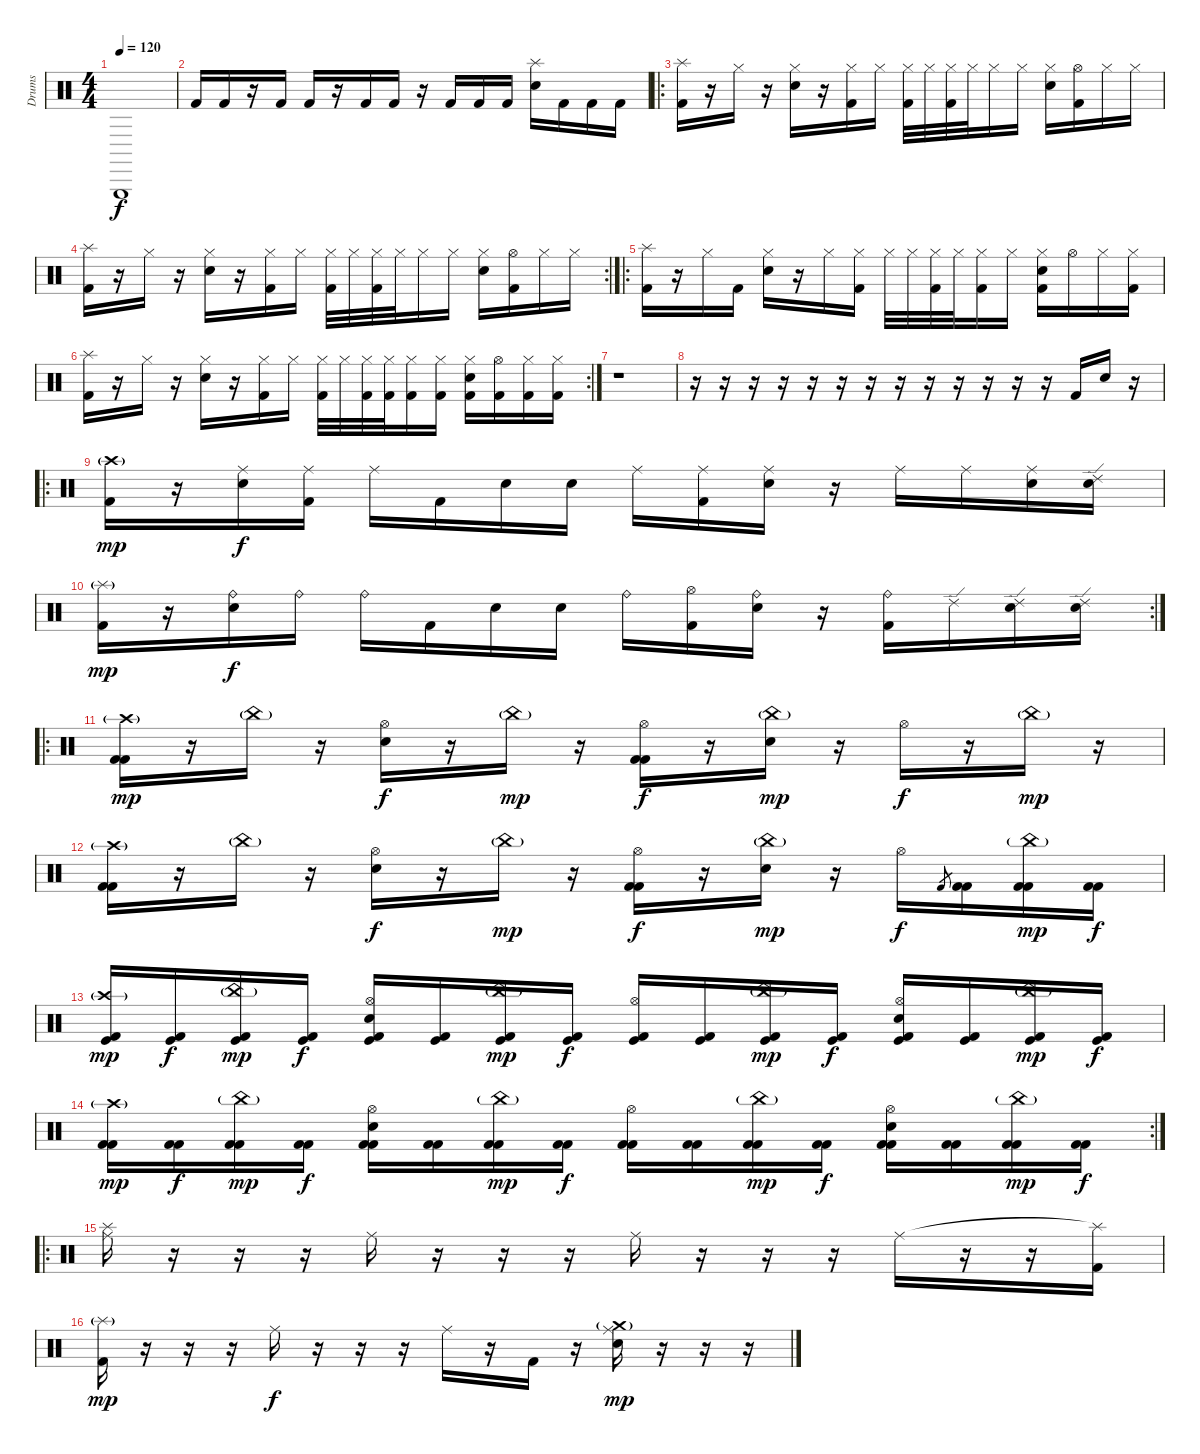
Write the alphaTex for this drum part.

\track ("Drums" "Drums") {instrument percussion}
\staff {score}
\articulation defaults
\ts (4 4)
\tempo 120
\clef neutral
\ks c "Triangle (hit)".1{dy f}
|
"Kick (hit) 2".16 "Kick (hit) 2".16 r.16 "Kick (hit) 2".16 "Kick (hit) 2".16 r.16 "Kick (hit) 2".16 "Kick (hit) 2".16 r.16 "Kick (hit) 2".16 "Kick (hit) 2".16 "Kick (hit) 2".16 ("Splash (hit)" "Snare (hit) 2").16 "Kick (hit) 2".16 "Kick (hit) 2".16 "Kick (hit) 2".16 |
\ro
("Splash (hit)" "Kick (hit) 2").16 r.16 "Hi-Hat (closed)".16 r.16 ("Hi-Hat (closed)" "Snare (hit) 2").16 r.16 ("Hi-Hat (closed)" "Kick (hit) 2").16 "Hi-Hat (closed)".16 ("Hi-Hat (closed)" "Kick (hit) 2").32 "Hi-Hat (closed)".32 ("Hi-Hat (closed)" "Kick (hit) 2").32 "Hi-Hat (closed)".32 "Hi-Hat (closed)".16 "Hi-Hat (closed)".16 ("Hi-Hat (closed)" "Snare (hit) 2").16 ("Hi-Hat (open)" "Kick (hit) 2").16 "Hi-Hat (closed)".16 "Hi-Hat (closed)".16 |
\rc 2
("Splash (hit)" "Kick (hit) 2").16 r.16 "Hi-Hat (closed)".16 r.16 ("Hi-Hat (closed)" "Snare (hit) 2").16 r.16 ("Hi-Hat (closed)" "Kick (hit) 2").16 "Hi-Hat (closed)".16 ("Hi-Hat (closed)" "Kick (hit) 2").32 "Hi-Hat (closed)".32 ("Hi-Hat (closed)" "Kick (hit) 2").32 "Hi-Hat (closed)".32 "Hi-Hat (closed)".16 "Hi-Hat (closed)".16 ("Hi-Hat (closed)" "Snare (hit) 2").16 ("Hi-Hat (open)" "Kick (hit) 2").16 "Hi-Hat (closed)".16 "Hi-Hat (closed)".16 |
\ro
("Splash (hit)" "Kick (hit) 2").16 r.16 "Hi-Hat (closed)".16 "Kick (hit) 2".16 ("Hi-Hat (closed)" "Snare (hit) 2").16 r.16 "Hi-Hat (closed)".16 ("Hi-Hat (closed)" "Kick (hit) 2").16 "Hi-Hat (closed)".32 "Hi-Hat (closed)".32 ("Hi-Hat (closed)" "Kick (hit) 2").32 "Hi-Hat (closed)".32 ("Hi-Hat (closed)" "Kick (hit) 2").16 "Hi-Hat (closed)".16 ("Hi-Hat (closed)" "Snare (hit) 2" "Kick (hit) 2").16 "Hi-Hat (open)".16 "Hi-Hat (closed)".16 ("Hi-Hat (closed)" "Kick (hit) 2").16 |
\rc 2
("Splash (hit)" "Kick (hit) 2").16 r.16 "Hi-Hat (closed)".16 r.16 ("Hi-Hat (closed)" "Snare (hit) 2").16 r.16 ("Hi-Hat (closed)" "Kick (hit) 2").16 "Hi-Hat (closed)".16 ("Hi-Hat (closed)" "Kick (hit) 2").32 "Hi-Hat (closed)".32 ("Hi-Hat (closed)" "Kick (hit) 2").32 ("Hi-Hat (closed)" "Kick (hit) 2").32 ("Hi-Hat (closed)" "Kick (hit) 2").16 ("Hi-Hat (closed)" "Kick (hit) 2").16 ("Hi-Hat (closed)" "Snare (hit) 2" "Kick (hit) 2").16 ("Hi-Hat (open)" "Kick (hit) 2").16 ("Hi-Hat (closed)" "Kick (hit) 2").16 ("Hi-Hat (closed)" "Kick (hit) 2").16 |
r.1 |
r.16 r.16 r.16 r.16 r.16 r.16 r.16 r.16 r.16 r.16 r.16 r.16 r.16 "Kick (hit) 2".16 "Snare (hit) 2".16 r.16 |
\ro
("Crash high (hit)"{g} "Kick (hit) 2").16{dy mp} r.16 ("Ride (middle)" "Snare (hit) 2").16{dy f} ("Ride (middle)" "Kick (hit) 2").16 "Ride (middle)".16 "Kick (hit) 2".16 "Snare (hit) 2".16 "Snare (hit) 2".16 "Ride (middle)".16 ("Ride (middle)" "Kick (hit) 2").16 ("Ride (middle)" "Snare (hit) 2").16 r.16 "Ride (middle)".16 "Ride (middle)".16 ("Ride (middle)" "Snare (hit) 2").16 ("Ride (edge) 2" "Snare (hit) 2").16 |
\rc 2
("Splash (hit)"{g} "Kick (hit) 2").16{dy mp} r.16 ("Ride (bell)" "Snare (hit) 2").16{dy f} "Ride (bell)".16 "Ride (bell)".16 "Kick (hit) 2".16 "Snare (hit) 2".16 "Snare (hit) 2".16 "Ride (bell)".16 ("Hi-Hat (open)" "Kick (hit) 2").16 ("Ride (bell)" "Snare (hit) 2").16 r.16 ("Ride (bell)" "Kick (hit) 2").16 "Ride (edge) 2".16 ("Ride (edge) 2" "Snare (hit) 2").16 ("Ride (edge) 2" "Snare (hit) 2").16 |
\ro
("Crash high (hit)"{g} "Kick (hit) 2" "Kick (hit) 2").16{dy mp} r.16 "China (hit)"{g}.16 r.16 ("Hi-Hat (open)" "Electric Snare (hit)").16{dy f} r.16 "China (hit)"{g}.16{dy mp} r.16 ("Hi-Hat (open)" "Kick (hit) 2" "Kick (hit) 2").16{dy f} r.16 ("China (hit)"{g} "Electric Snare (hit)").16{dy mp} r.16 "Hi-Hat (open)".16{dy f} r.16 "China (hit)"{g}.16{dy mp} r.16 |
("Crash high (hit)"{g} "Kick (hit) 2" "Kick (hit) 2").16 r.16 "China (hit)"{g}.16 r.16 ("Hi-Hat (open)" "Electric Snare (hit)").16{dy f} r.16 "China (hit)"{g}.16{dy mp} r.16 ("Hi-Hat (open)" "Kick (hit) 2" "Kick (hit) 2").16{dy f} r.16 ("China (hit)"{g} "Electric Snare (hit)").16{dy mp} r.16 "Hi-Hat (open)".16{dy f} "Kick (hit) 2".8{gr} ("Kick (hit) 2" "Kick (hit) 2").16 ("China (hit)"{g} "Kick (hit) 2" "Kick (hit) 2").16{dy mp} ("Kick (hit) 2" "Kick (hit) 2").16{dy f} |
("Crash high (hit)"{g} "Kick (hit) 2" "Kick (hit)").16{dy mp} ("Kick (hit) 2" "Kick (hit)").16{dy f} ("China (hit)"{g} "Kick (hit) 2" "Kick (hit)").16{dy mp} ("Kick (hit) 2" "Kick (hit)").16{dy f} ("Hi-Hat (open)" "Electric Snare (hit)" "Kick (hit) 2" "Kick (hit)").16 ("Kick (hit) 2" "Kick (hit)").16 ("China (hit)"{g} "Kick (hit) 2" "Kick (hit)").16{dy mp} ("Kick (hit) 2" "Kick (hit)").16{dy f} ("Hi-Hat (open)" "Kick (hit) 2" "Kick (hit)").16 ("Kick (hit) 2" "Kick (hit)").16 ("China (hit)"{g} "Kick (hit) 2" "Kick (hit)").16{dy mp} ("Kick (hit) 2" "Kick (hit)").16{dy f} ("Hi-Hat (open)" "Electric Snare (hit)" "Kick (hit) 2" "Kick (hit)").16 ("Kick (hit) 2" "Kick (hit)").16 ("China (hit)"{g} "Kick (hit) 2" "Kick (hit)").16{dy mp} ("Kick (hit) 2" "Kick (hit)").16{dy f} |
\rc 2
("Crash high (hit)"{g} "Kick (hit) 2" "Kick (hit) 2").16{dy mp} ("Kick (hit) 2" "Kick (hit) 2").16{dy f} ("China (hit)"{g} "Kick (hit) 2" "Kick (hit) 2").16{dy mp} ("Kick (hit) 2" "Kick (hit) 2").16{dy f} ("Hi-Hat (open)" "Electric Snare (hit)" "Kick (hit) 2" "Kick (hit) 2").16 ("Kick (hit) 2" "Kick (hit) 2").16 ("China (hit)"{g} "Kick (hit) 2" "Kick (hit) 2").16{dy mp} ("Kick (hit) 2" "Kick (hit) 2").16{dy f} ("Hi-Hat (open)" "Kick (hit) 2" "Kick (hit) 2").16 ("Kick (hit) 2" "Kick (hit) 2").16 ("China (hit)"{g} "Kick (hit) 2" "Kick (hit) 2").16{dy mp} ("Kick (hit) 2" "Kick (hit) 2").16{dy f} ("Hi-Hat (open)" "Electric Snare (hit)" "Kick (hit) 2" "Kick (hit) 2").16 ("Kick (hit) 2" "Kick (hit) 2").16 ("China (hit)"{g} "Kick (hit) 2" "Kick (hit) 2").16{dy mp} ("Kick (hit) 2" "Kick (hit) 2").16{dy f} |
\ro
("Splash (hit)" "Ride (middle)").16 r.16 r.16 r.16 "Ride (middle)".16 r.16 r.16 r.16 "Ride (middle)".16 r.16 r.16 r.16 "Ride (middle)".16 r.16 r.16 ("Splash (hit)"{t} "Kick (hit) 2").16 |
("Splash (hit)"{g} "Kick (hit) 2").16{dy mp} r.16 r.16 r.16 "Ride (middle)".16{dy f} r.16 r.16 r.16 "Ride (middle)".16 r.16 "Kick (hit) 2".16 r.16 ("Crash medium (hit)"{g} "Ride (middle)" "Electric Snare (hit)").16{dy mp} r.16 r.16 r.16
